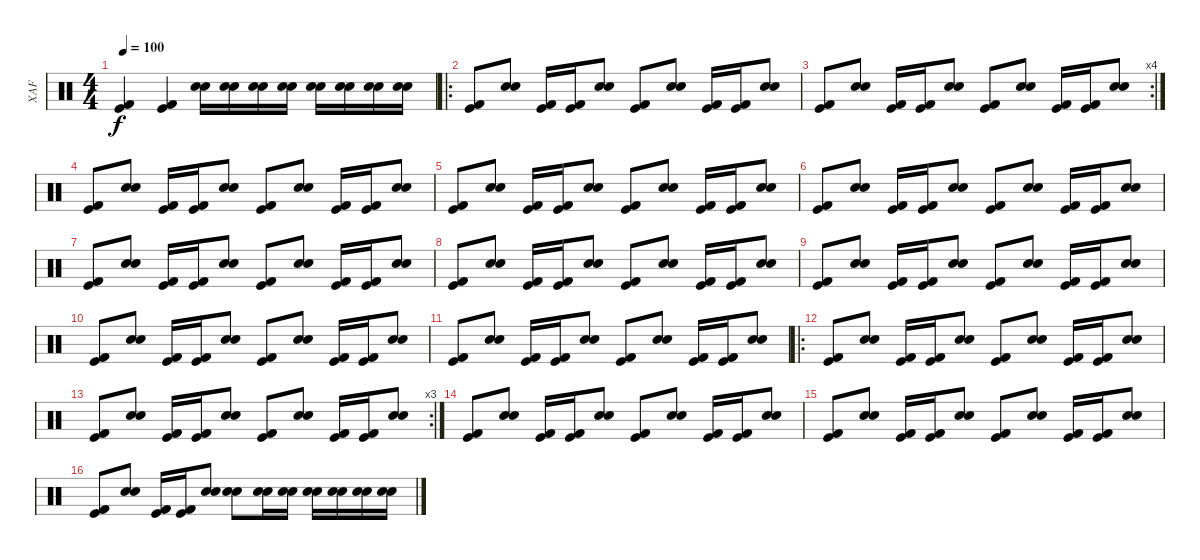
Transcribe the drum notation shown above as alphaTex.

\track ("XAF" "XAF") {instrument percussion}
\staff {score}
\articulation defaults
\ts (4 4)
\tempo 100
\clef neutral
\ks c
("Kick (hit) 2" "Kick (hit)").4{dy f} ("Kick (hit) 2" "Kick (hit)").4 ("Electric Snare (hit)" "Snare (hit) 2").16 ("Electric Snare (hit)" "Snare (hit) 2").16 ("Electric Snare (hit)" "Snare (hit) 2").16 ("Electric Snare (hit)" "Snare (hit) 2").16 ("Electric Snare (hit)" "Snare (hit) 2").16 ("Electric Snare (hit)" "Snare (hit) 2").16 ("Electric Snare (hit)" "Snare (hit) 2").16 ("Electric Snare (hit)" "Snare (hit) 2").16 |
\ro
("Kick (hit) 2" "Kick (hit)").8 ("Electric Snare (hit)" "Snare (hit) 2").8 ("Kick (hit) 2" "Kick (hit)").16 ("Kick (hit) 2" "Kick (hit)").16 ("Electric Snare (hit)" "Snare (hit) 2").8 ("Kick (hit) 2" "Kick (hit)").8 ("Electric Snare (hit)" "Snare (hit) 2").8 ("Kick (hit) 2" "Kick (hit)").16 ("Kick (hit) 2" "Kick (hit)").16 ("Electric Snare (hit)" "Snare (hit) 2").8 |
\rc 4
("Kick (hit) 2" "Kick (hit)").8 ("Electric Snare (hit)" "Snare (hit) 2").8 ("Kick (hit) 2" "Kick (hit)").16 ("Kick (hit) 2" "Kick (hit)").16 ("Electric Snare (hit)" "Snare (hit) 2").8 ("Kick (hit) 2" "Kick (hit)").8 ("Electric Snare (hit)" "Snare (hit) 2").8 ("Kick (hit) 2" "Kick (hit)").16 ("Kick (hit) 2" "Kick (hit)").16 ("Electric Snare (hit)" "Snare (hit) 2").8 |
("Kick (hit) 2" "Kick (hit)").8 ("Electric Snare (hit)" "Snare (hit) 2").8 ("Kick (hit) 2" "Kick (hit)").16 ("Kick (hit) 2" "Kick (hit)").16 ("Electric Snare (hit)" "Snare (hit) 2").8 ("Kick (hit) 2" "Kick (hit)").8 ("Electric Snare (hit)" "Snare (hit) 2").8 ("Kick (hit) 2" "Kick (hit)").16 ("Kick (hit) 2" "Kick (hit)").16 ("Electric Snare (hit)" "Snare (hit) 2").8 |
("Kick (hit) 2" "Kick (hit)").8 ("Electric Snare (hit)" "Snare (hit) 2").8 ("Kick (hit) 2" "Kick (hit)").16 ("Kick (hit) 2" "Kick (hit)").16 ("Electric Snare (hit)" "Snare (hit) 2").8 ("Kick (hit) 2" "Kick (hit)").8 ("Electric Snare (hit)" "Snare (hit) 2").8 ("Kick (hit) 2" "Kick (hit)").16 ("Kick (hit) 2" "Kick (hit)").16 ("Electric Snare (hit)" "Snare (hit) 2").8 |
("Kick (hit) 2" "Kick (hit)").8 ("Electric Snare (hit)" "Snare (hit) 2").8 ("Kick (hit) 2" "Kick (hit)").16 ("Kick (hit) 2" "Kick (hit)").16 ("Electric Snare (hit)" "Snare (hit) 2").8 ("Kick (hit) 2" "Kick (hit)").8 ("Electric Snare (hit)" "Snare (hit) 2").8 ("Kick (hit) 2" "Kick (hit)").16 ("Kick (hit) 2" "Kick (hit)").16 ("Electric Snare (hit)" "Snare (hit) 2").8 |
("Kick (hit) 2" "Kick (hit)").8 ("Electric Snare (hit)" "Snare (hit) 2").8 ("Kick (hit) 2" "Kick (hit)").16 ("Kick (hit) 2" "Kick (hit)").16 ("Electric Snare (hit)" "Snare (hit) 2").8 ("Kick (hit) 2" "Kick (hit)").8 ("Electric Snare (hit)" "Snare (hit) 2").8 ("Kick (hit) 2" "Kick (hit)").16 ("Kick (hit) 2" "Kick (hit)").16 ("Electric Snare (hit)" "Snare (hit) 2").8 |
("Kick (hit) 2" "Kick (hit)").8 ("Electric Snare (hit)" "Snare (hit) 2").8 ("Kick (hit) 2" "Kick (hit)").16 ("Kick (hit) 2" "Kick (hit)").16 ("Electric Snare (hit)" "Snare (hit) 2").8 ("Kick (hit) 2" "Kick (hit)").8 ("Electric Snare (hit)" "Snare (hit) 2").8 ("Kick (hit) 2" "Kick (hit)").16 ("Kick (hit) 2" "Kick (hit)").16 ("Electric Snare (hit)" "Snare (hit) 2").8 |
("Kick (hit) 2" "Kick (hit)").8 ("Electric Snare (hit)" "Snare (hit) 2").8 ("Kick (hit) 2" "Kick (hit)").16 ("Kick (hit) 2" "Kick (hit)").16 ("Electric Snare (hit)" "Snare (hit) 2").8 ("Kick (hit) 2" "Kick (hit)").8 ("Electric Snare (hit)" "Snare (hit) 2").8 ("Kick (hit) 2" "Kick (hit)").16 ("Kick (hit) 2" "Kick (hit)").16 ("Electric Snare (hit)" "Snare (hit) 2").8 |
("Kick (hit) 2" "Kick (hit)").8 ("Electric Snare (hit)" "Snare (hit) 2").8 ("Kick (hit) 2" "Kick (hit)").16 ("Kick (hit) 2" "Kick (hit)").16 ("Electric Snare (hit)" "Snare (hit) 2").8 ("Kick (hit) 2" "Kick (hit)").8 ("Electric Snare (hit)" "Snare (hit) 2").8 ("Kick (hit) 2" "Kick (hit)").16 ("Kick (hit) 2" "Kick (hit)").16 ("Electric Snare (hit)" "Snare (hit) 2").8 |
("Kick (hit) 2" "Kick (hit)").8 ("Electric Snare (hit)" "Snare (hit) 2").8 ("Kick (hit) 2" "Kick (hit)").16 ("Kick (hit) 2" "Kick (hit)").16 ("Electric Snare (hit)" "Snare (hit) 2").8 ("Kick (hit) 2" "Kick (hit)").8 ("Electric Snare (hit)" "Snare (hit) 2").8 ("Kick (hit) 2" "Kick (hit)").16 ("Kick (hit) 2" "Kick (hit)").16 ("Electric Snare (hit)" "Snare (hit) 2").8 |
\ro
("Kick (hit) 2" "Kick (hit)").8 ("Electric Snare (hit)" "Snare (hit) 2").8 ("Kick (hit) 2" "Kick (hit)").16 ("Kick (hit) 2" "Kick (hit)").16 ("Electric Snare (hit)" "Snare (hit) 2").8 ("Kick (hit) 2" "Kick (hit)").8 ("Electric Snare (hit)" "Snare (hit) 2").8 ("Kick (hit) 2" "Kick (hit)").16 ("Kick (hit) 2" "Kick (hit)").16 ("Electric Snare (hit)" "Snare (hit) 2").8 |
\rc 3
("Kick (hit) 2" "Kick (hit)").8 ("Electric Snare (hit)" "Snare (hit) 2").8 ("Kick (hit) 2" "Kick (hit)").16 ("Kick (hit) 2" "Kick (hit)").16 ("Electric Snare (hit)" "Snare (hit) 2").8 ("Kick (hit) 2" "Kick (hit)").8 ("Electric Snare (hit)" "Snare (hit) 2").8 ("Kick (hit) 2" "Kick (hit)").16 ("Kick (hit) 2" "Kick (hit)").16 ("Electric Snare (hit)" "Snare (hit) 2").8 |
("Kick (hit) 2" "Kick (hit)").8 ("Electric Snare (hit)" "Snare (hit) 2").8 ("Kick (hit) 2" "Kick (hit)").16 ("Kick (hit) 2" "Kick (hit)").16 ("Electric Snare (hit)" "Snare (hit) 2").8 ("Kick (hit) 2" "Kick (hit)").8 ("Electric Snare (hit)" "Snare (hit) 2").8 ("Kick (hit) 2" "Kick (hit)").16 ("Kick (hit) 2" "Kick (hit)").16 ("Electric Snare (hit)" "Snare (hit) 2").8 |
("Kick (hit) 2" "Kick (hit)").8 ("Electric Snare (hit)" "Snare (hit) 2").8 ("Kick (hit) 2" "Kick (hit)").16 ("Kick (hit) 2" "Kick (hit)").16 ("Electric Snare (hit)" "Snare (hit) 2").8 ("Kick (hit) 2" "Kick (hit)").8 ("Electric Snare (hit)" "Snare (hit) 2").8 ("Kick (hit) 2" "Kick (hit)").16 ("Kick (hit) 2" "Kick (hit)").16 ("Electric Snare (hit)" "Snare (hit) 2").8 |
("Kick (hit) 2" "Kick (hit)").8 ("Electric Snare (hit)" "Snare (hit) 2").8 ("Kick (hit) 2" "Kick (hit)").16 ("Kick (hit) 2" "Kick (hit)").16 ("Electric Snare (hit)" "Snare (hit) 2").8 ("Electric Snare (hit)" "Snare (hit) 2").8 ("Electric Snare (hit)" "Snare (hit) 2").16 ("Electric Snare (hit)" "Snare (hit) 2").16 ("Electric Snare (hit)" "Snare (hit) 2").16 ("Electric Snare (hit)" "Snare (hit) 2").16 ("Electric Snare (hit)" "Snare (hit) 2").16 ("Electric Snare (hit)" "Snare (hit) 2").16
